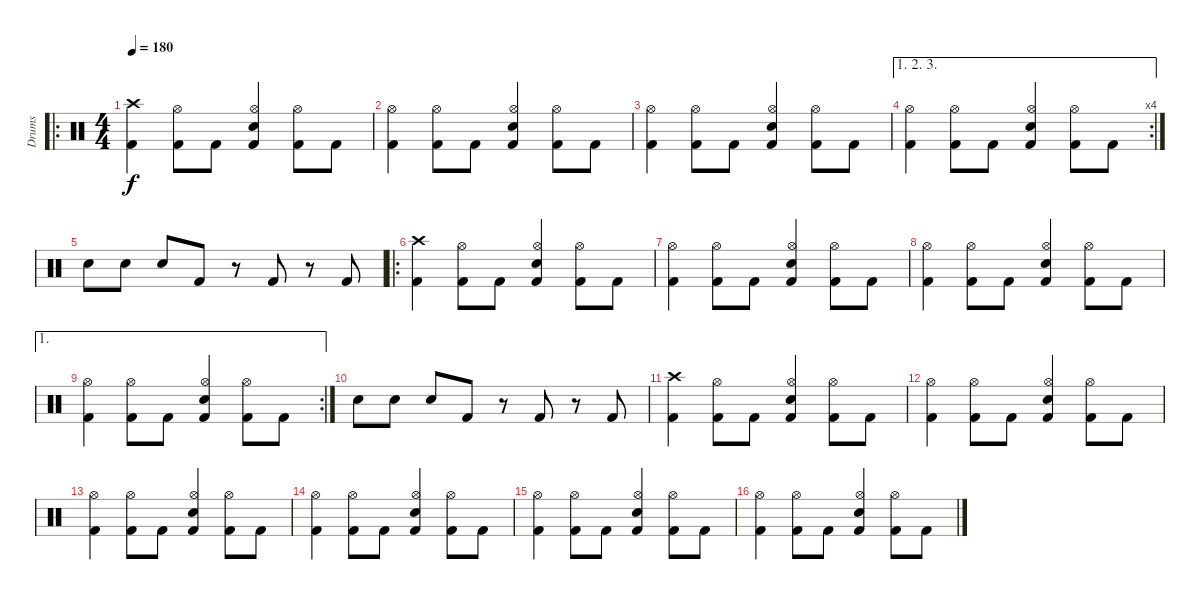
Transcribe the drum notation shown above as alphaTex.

\track ("Drums" "Drums") {instrument percussion}
\staff {score}
\articulation defaults
\ro
\ts (4 4)
\tempo 180
\clef neutral
\ks c
("Kick (hit) 2" "Crash high (hit)").4{dy f} ("Kick (hit) 2" "Hi-Hat (open)").8 "Kick (hit) 2".8 ("Kick (hit) 2" "Snare (hit) 2" "Hi-Hat (open)").4 ("Kick (hit) 2" "Hi-Hat (open)").8 "Kick (hit) 2".8 |
("Kick (hit) 2" "Hi-Hat (open)").4 ("Kick (hit) 2" "Hi-Hat (open)").8 "Kick (hit) 2".8 ("Kick (hit) 2" "Snare (hit) 2" "Hi-Hat (open)").4 ("Kick (hit) 2" "Hi-Hat (open)").8 "Kick (hit) 2".8 |
("Kick (hit) 2" "Hi-Hat (open)").4 ("Kick (hit) 2" "Hi-Hat (open)").8 "Kick (hit) 2".8 ("Kick (hit) 2" "Snare (hit) 2" "Hi-Hat (open)").4 ("Kick (hit) 2" "Hi-Hat (open)").8 "Kick (hit) 2".8 |
\ae (1 2 3)
\rc 4
("Kick (hit) 2" "Hi-Hat (open)").4 ("Kick (hit) 2" "Hi-Hat (open)").8 "Kick (hit) 2".8 ("Kick (hit) 2" "Snare (hit) 2" "Hi-Hat (open)").4 ("Kick (hit) 2" "Hi-Hat (open)").8 "Kick (hit) 2".8 |
"Snare (hit) 2".8 "Snare (hit) 2".8 "Snare (hit) 2".8 "Kick (hit) 2".8 r.8 "Kick (hit) 2".8 r.8 "Kick (hit) 2".8 |
\ro
("Kick (hit) 2" "Crash high (hit)").4 ("Kick (hit) 2" "Hi-Hat (open)").8 "Kick (hit) 2".8 ("Kick (hit) 2" "Snare (hit) 2" "Hi-Hat (open)").4 ("Kick (hit) 2" "Hi-Hat (open)").8 "Kick (hit) 2".8 |
("Kick (hit) 2" "Hi-Hat (open)").4 ("Kick (hit) 2" "Hi-Hat (open)").8 "Kick (hit) 2".8 ("Kick (hit) 2" "Snare (hit) 2" "Hi-Hat (open)").4 ("Kick (hit) 2" "Hi-Hat (open)").8 "Kick (hit) 2".8 |
("Kick (hit) 2" "Hi-Hat (open)").4 ("Kick (hit) 2" "Hi-Hat (open)").8 "Kick (hit) 2".8 ("Kick (hit) 2" "Snare (hit) 2" "Hi-Hat (open)").4 ("Kick (hit) 2" "Hi-Hat (open)").8 "Kick (hit) 2".8 |
\ae 1
\rc 2
("Kick (hit) 2" "Hi-Hat (open)").4 ("Kick (hit) 2" "Hi-Hat (open)").8 "Kick (hit) 2".8 ("Kick (hit) 2" "Snare (hit) 2" "Hi-Hat (open)").4 ("Kick (hit) 2" "Hi-Hat (open)").8 "Kick (hit) 2".8 |
"Snare (hit) 2".8 "Snare (hit) 2".8 "Snare (hit) 2".8 "Kick (hit) 2".8 r.8 "Kick (hit) 2".8 r.8 "Kick (hit) 2".8 |
("Kick (hit) 2" "Crash high (hit)").4 ("Kick (hit) 2" "Hi-Hat (open)").8 "Kick (hit) 2".8 ("Kick (hit) 2" "Snare (hit) 2" "Hi-Hat (open)").4 ("Kick (hit) 2" "Hi-Hat (open)").8 "Kick (hit) 2".8 |
("Kick (hit) 2" "Hi-Hat (open)").4 ("Kick (hit) 2" "Hi-Hat (open)").8 "Kick (hit) 2".8 ("Kick (hit) 2" "Snare (hit) 2" "Hi-Hat (open)").4 ("Kick (hit) 2" "Hi-Hat (open)").8 "Kick (hit) 2".8 |
("Kick (hit) 2" "Hi-Hat (open)").4 ("Kick (hit) 2" "Hi-Hat (open)").8 "Kick (hit) 2".8 ("Kick (hit) 2" "Snare (hit) 2" "Hi-Hat (open)").4 ("Kick (hit) 2" "Hi-Hat (open)").8 "Kick (hit) 2".8 |
("Kick (hit) 2" "Hi-Hat (open)").4 ("Kick (hit) 2" "Hi-Hat (open)").8 "Kick (hit) 2".8 ("Kick (hit) 2" "Snare (hit) 2" "Hi-Hat (open)").4 ("Kick (hit) 2" "Hi-Hat (open)").8 "Kick (hit) 2".8 |
("Kick (hit) 2" "Hi-Hat (open)").4 ("Kick (hit) 2" "Hi-Hat (open)").8 "Kick (hit) 2".8 ("Kick (hit) 2" "Snare (hit) 2" "Hi-Hat (open)").4 ("Kick (hit) 2" "Hi-Hat (open)").8 "Kick (hit) 2".8 |
("Kick (hit) 2" "Hi-Hat (open)").4 ("Kick (hit) 2" "Hi-Hat (open)").8 "Kick (hit) 2".8 ("Kick (hit) 2" "Snare (hit) 2" "Hi-Hat (open)").4 ("Kick (hit) 2" "Hi-Hat (open)").8 "Kick (hit) 2".8
